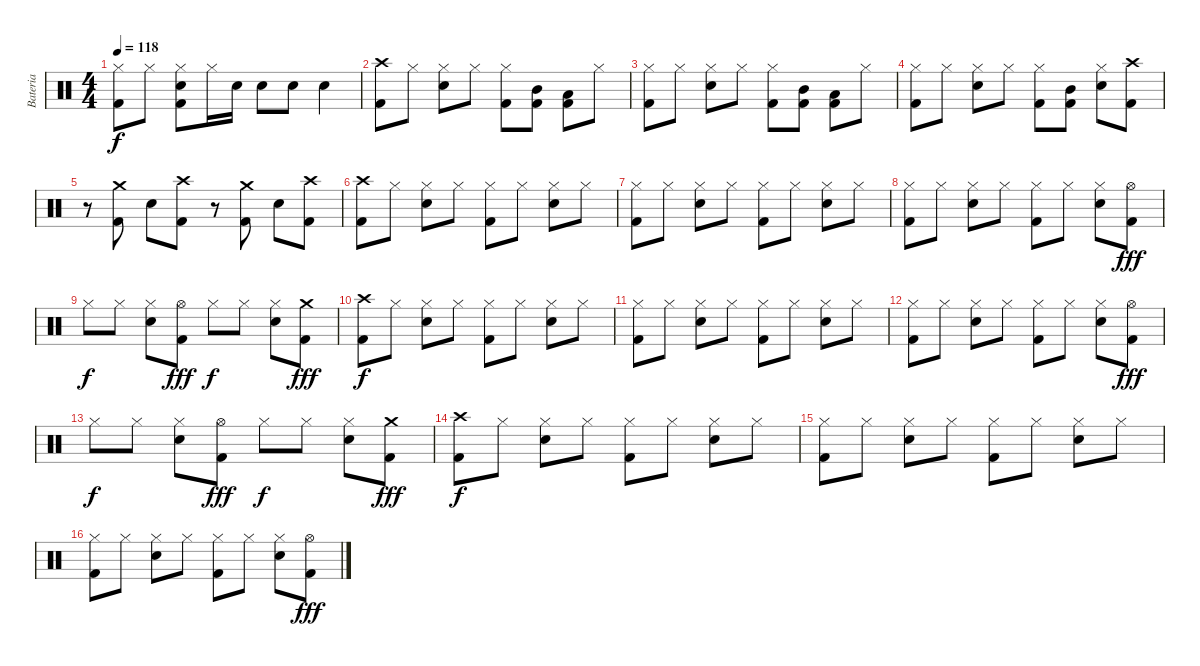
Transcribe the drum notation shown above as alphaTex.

\track ("Bateria" "Bateria") {instrument percussion}
\staff {score}
\articulation defaults
\ts (4 4)
\tempo 118
\clef neutral
\ks c
("Kick (hit) 2" "Hi-Hat (closed)").8{dy f} "Hi-Hat (closed)".8 ("Electric Snare (hit)" "Hi-Hat (closed)" "Kick (hit) 2").8 "Hi-Hat (closed)".16 "Electric Snare (hit)".16 "Electric Snare (hit)".8 "Electric Snare (hit)".8 "Electric Snare (hit)".4 |
("Kick (hit) 2" "Crash high (hit)").8 "Hi-Hat (closed)".8 ("Hi-Hat (closed)" "Electric Snare (hit)").8 "Hi-Hat (closed)".8 ("Hi-Hat (closed)" "Kick (hit) 2").8 ("Mid Tom (hit)" "Kick (hit) 2").8 ("Low Tom (hit)" "Kick (hit) 2").8 "Hi-Hat (closed)".8 |
("Hi-Hat (closed)" "Kick (hit) 2").8 "Hi-Hat (closed)".8 ("Hi-Hat (closed)" "Electric Snare (hit)").8 "Hi-Hat (closed)".8 ("Hi-Hat (closed)" "Kick (hit) 2").8 ("Mid Tom (hit)" "Kick (hit) 2").8 ("Low Tom (hit)" "Kick (hit) 2").8 "Hi-Hat (closed)".8 |
("Hi-Hat (closed)" "Kick (hit) 2").8 "Hi-Hat (closed)".8 ("Hi-Hat (closed)" "Electric Snare (hit)").8 "Hi-Hat (closed)".8 ("Hi-Hat (closed)" "Kick (hit) 2").8 ("Mid Tom (hit)" "Kick (hit) 2").8 ("Hi-Hat (closed)" "Electric Snare (hit)").8 ("Crash high (hit)" "Kick (hit) 2").8 |
r.8 ("Crash medium (hit)" "Kick (hit) 2").8 "Electric Snare (hit)".8 ("Crash high (hit)" "Kick (hit) 2").8 r.8 ("Crash medium (hit)" "Kick (hit) 2").8 "Electric Snare (hit)".8 ("Kick (hit) 2" "Crash high (hit)").8 |
("Crash high (hit)" "Kick (hit) 2").8 "Hi-Hat (closed)".8 ("Electric Snare (hit)" "Hi-Hat (closed)").8 "Hi-Hat (closed)".8 ("Kick (hit) 2" "Hi-Hat (closed)").8 "Hi-Hat (closed)".8 ("Electric Snare (hit)" "Hi-Hat (closed)").8 "Hi-Hat (closed)".8 |
("Kick (hit) 2" "Hi-Hat (closed)").8 "Hi-Hat (closed)".8 ("Electric Snare (hit)" "Hi-Hat (closed)").8 "Hi-Hat (closed)".8 ("Kick (hit) 2" "Hi-Hat (closed)").8 "Hi-Hat (closed)".8 ("Electric Snare (hit)" "Hi-Hat (closed)").8 "Hi-Hat (closed)".8 |
("Kick (hit) 2" "Hi-Hat (closed)").8 "Hi-Hat (closed)".8 ("Electric Snare (hit)" "Hi-Hat (closed)").8 "Hi-Hat (closed)".8 ("Kick (hit) 2" "Hi-Hat (closed)").8 "Hi-Hat (closed)".8 ("Electric Snare (hit)" "Hi-Hat (closed)").8 ("Kick (hit) 2" "Hi-Hat (open)").8{dy fff} |
"Hi-Hat (closed)".8{dy f} "Hi-Hat (closed)".8 ("Electric Snare (hit)" "Hi-Hat (closed)").8 ("Kick (hit) 2" "Hi-Hat (open)").8{dy fff} "Hi-Hat (closed)".8{dy f} "Hi-Hat (closed)".8 ("Electric Snare (hit)" "Hi-Hat (closed)").8 ("Kick (hit) 2" "Crash medium (hit)").8{dy fff} |
("Crash high (hit)" "Kick (hit) 2").8{dy f} "Hi-Hat (closed)".8 ("Electric Snare (hit)" "Hi-Hat (closed)").8 "Hi-Hat (closed)".8 ("Kick (hit) 2" "Hi-Hat (closed)").8 "Hi-Hat (closed)".8 ("Electric Snare (hit)" "Hi-Hat (closed)").8 "Hi-Hat (closed)".8 |
("Kick (hit) 2" "Hi-Hat (closed)").8 "Hi-Hat (closed)".8 ("Electric Snare (hit)" "Hi-Hat (closed)").8 "Hi-Hat (closed)".8 ("Kick (hit) 2" "Hi-Hat (closed)").8 "Hi-Hat (closed)".8 ("Electric Snare (hit)" "Hi-Hat (closed)").8 "Hi-Hat (closed)".8 |
("Kick (hit) 2" "Hi-Hat (closed)").8 "Hi-Hat (closed)".8 ("Electric Snare (hit)" "Hi-Hat (closed)").8 "Hi-Hat (closed)".8 ("Kick (hit) 2" "Hi-Hat (closed)").8 "Hi-Hat (closed)".8 ("Electric Snare (hit)" "Hi-Hat (closed)").8 ("Kick (hit) 2" "Hi-Hat (open)").8{dy fff} |
"Hi-Hat (closed)".8{dy f} "Hi-Hat (closed)".8 ("Electric Snare (hit)" "Hi-Hat (closed)").8 ("Kick (hit) 2" "Hi-Hat (open)").8{dy fff} "Hi-Hat (closed)".8{dy f} "Hi-Hat (closed)".8 ("Electric Snare (hit)" "Hi-Hat (closed)").8 ("Kick (hit) 2" "Crash medium (hit)").8{dy fff} |
("Crash high (hit)" "Kick (hit) 2").8{dy f} "Hi-Hat (closed)".8 ("Electric Snare (hit)" "Hi-Hat (closed)").8 "Hi-Hat (closed)".8 ("Kick (hit) 2" "Hi-Hat (closed)").8 "Hi-Hat (closed)".8 ("Electric Snare (hit)" "Hi-Hat (closed)").8 "Hi-Hat (closed)".8 |
("Kick (hit) 2" "Hi-Hat (closed)").8 "Hi-Hat (closed)".8 ("Electric Snare (hit)" "Hi-Hat (closed)").8 "Hi-Hat (closed)".8 ("Kick (hit) 2" "Hi-Hat (closed)").8 "Hi-Hat (closed)".8 ("Electric Snare (hit)" "Hi-Hat (closed)").8 "Hi-Hat (closed)".8 |
("Kick (hit) 2" "Hi-Hat (closed)").8 "Hi-Hat (closed)".8 ("Electric Snare (hit)" "Hi-Hat (closed)").8 "Hi-Hat (closed)".8 ("Kick (hit) 2" "Hi-Hat (closed)").8 "Hi-Hat (closed)".8 ("Electric Snare (hit)" "Hi-Hat (closed)").8 ("Kick (hit) 2" "Hi-Hat (open)").8{dy fff}
